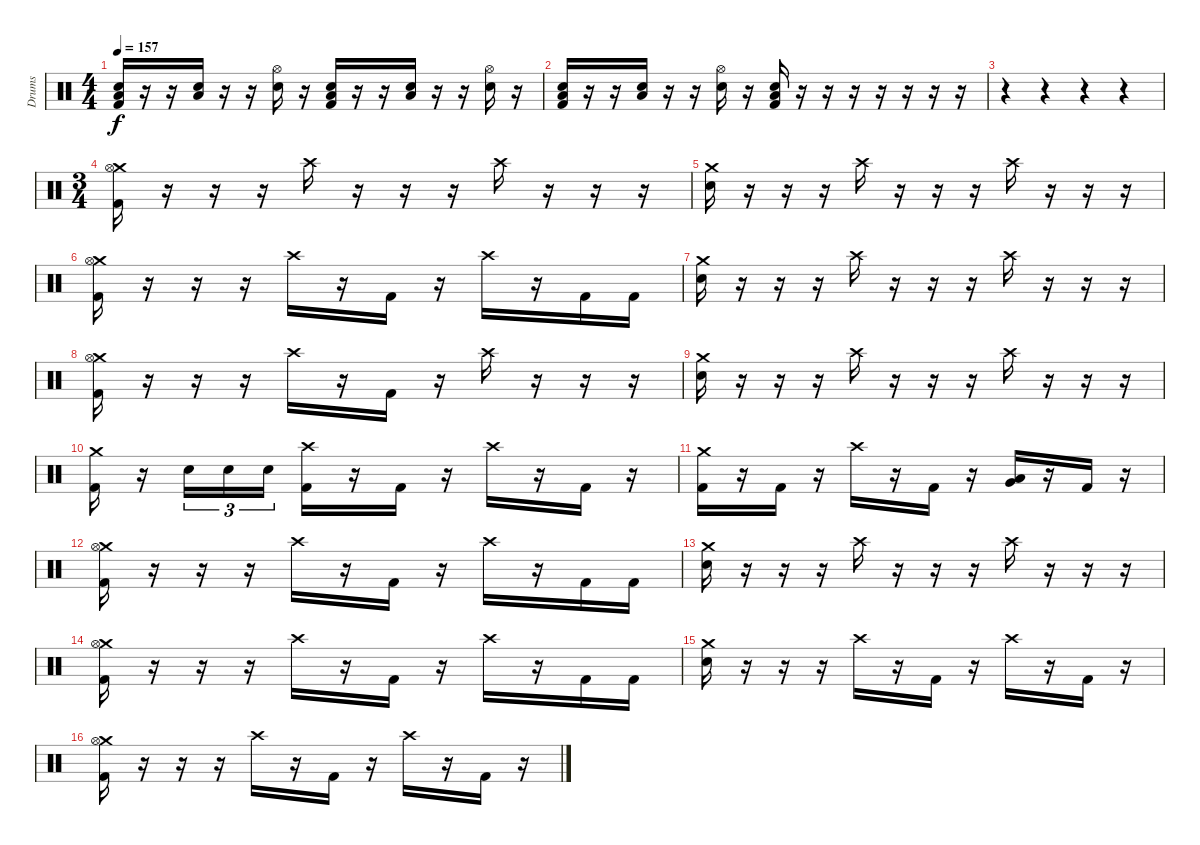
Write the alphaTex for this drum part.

\track ("Drums" "Drums") {instrument percussion}
\staff {score}
\articulation defaults
\ts (4 4)
\tempo 157
\clef neutral
\ks c
("Low Tom (hit)" "Snare (hit) 2" "Kick (hit) 2").16{dy f} r.16 r.16 ("Low Tom (hit)" "Snare (hit) 2").16 r.16 r.16 ("Hi-Hat (open)" "Snare (hit) 2").16 r.16 ("Low Tom (hit)" "Snare (hit) 2" "Kick (hit) 2").16 r.16 r.16 ("Low Tom (hit)" "Snare (hit) 2").16 r.16 r.16 ("Hi-Hat (open)" "Snare (hit) 2").16 r.16 |
("Low Tom (hit)" "Snare (hit) 2" "Kick (hit) 2").16 r.16 r.16 ("Low Tom (hit)" "Snare (hit) 2").16 r.16 r.16 ("Hi-Hat (open)" "Snare (hit) 2").16 r.16 ("Low Tom (hit)" "Snare (hit) 2" "Kick (hit) 2").16 r.16 r.16 r.16 r.16 r.16 r.16 r.16 |
r.4 r.4 r.4 r.4 |
\ts (3 4)
("Crash medium (hit)" "Hi-Hat (open)" "Kick (hit) 2").16 r.16 r.16 r.16 "Crash high (hit)".16 r.16 r.16 r.16 "Crash high (hit)".16 r.16 r.16 r.16 |
("Crash medium (hit)" "Snare (hit) 2").16 r.16 r.16 r.16 "Crash high (hit)".16 r.16 r.16 r.16 "Crash high (hit)".16 r.16 r.16 r.16 |
("Crash medium (hit)" "Hi-Hat (open)" "Kick (hit) 2").16 r.16 r.16 r.16 "Crash high (hit)".16 r.16 "Kick (hit) 2".16 r.16 "Crash high (hit)".16 r.16 "Kick (hit) 2".16 "Kick (hit) 2".16 |
("Crash medium (hit)" "Snare (hit) 2").16 r.16 r.16 r.16 "Crash high (hit)".16 r.16 r.16 r.16 "Crash high (hit)".16 r.16 r.16 r.16 |
("Crash medium (hit)" "Hi-Hat (open)" "Kick (hit) 2").16 r.16 r.16 r.16 "Crash high (hit)".16 r.16 "Kick (hit) 2".16 r.16 "Crash high (hit)".16 r.16 r.16 r.16 |
("Crash medium (hit)" "Snare (hit) 2").16 r.16 r.16 r.16 "Crash high (hit)".16 r.16 r.16 r.16 "Crash high (hit)".16 r.16 r.16 r.16 |
("Crash medium (hit)" "Kick (hit) 2").16 r.16 "Snare (hit) 2".16{tu (3 2)} "Snare (hit) 2".16{tu (3 2)} "Snare (hit) 2".16{tu (3 2)} ("Crash high (hit)" "Kick (hit) 2").16 r.16 "Kick (hit) 2".16 r.16 "Crash high (hit)".16 r.16 "Kick (hit) 2".16 r.16 |
("Crash medium (hit)" "Kick (hit) 2").16 r.16 "Kick (hit) 2".16 r.16 "Crash high (hit)".16 r.16 "Kick (hit) 2".16 r.16 ("Very Low Tom (hit)" "Low Tom (hit)").16 r.16 "Kick (hit) 2".16 r.16 |
("Crash medium (hit)" "Hi-Hat (open)" "Kick (hit) 2").16 r.16 r.16 r.16 "Crash high (hit)".16 r.16 "Kick (hit) 2".16 r.16 "Crash high (hit)".16 r.16 "Kick (hit) 2".16 "Kick (hit) 2".16 |
("Crash medium (hit)" "Snare (hit) 2").16 r.16 r.16 r.16 "Crash high (hit)".16 r.16 r.16 r.16 "Crash high (hit)".16 r.16 r.16 r.16 |
("Crash medium (hit)" "Hi-Hat (open)" "Kick (hit) 2").16 r.16 r.16 r.16 "Crash high (hit)".16 r.16 "Kick (hit) 2".16 r.16 "Crash high (hit)".16 r.16 "Kick (hit) 2".16 "Kick (hit) 2".16 |
("Crash medium (hit)" "Snare (hit) 2").16 r.16 r.16 r.16 "Crash high (hit)".16 r.16 "Kick (hit) 2".16 r.16 "Crash high (hit)".16 r.16 "Kick (hit) 2".16 r.16 |
("Crash medium (hit)" "Hi-Hat (open)" "Kick (hit) 2").16 r.16 r.16 r.16 "Crash high (hit)".16 r.16 "Kick (hit) 2".16 r.16 "Crash high (hit)".16 r.16 "Kick (hit) 2".16 r.16
